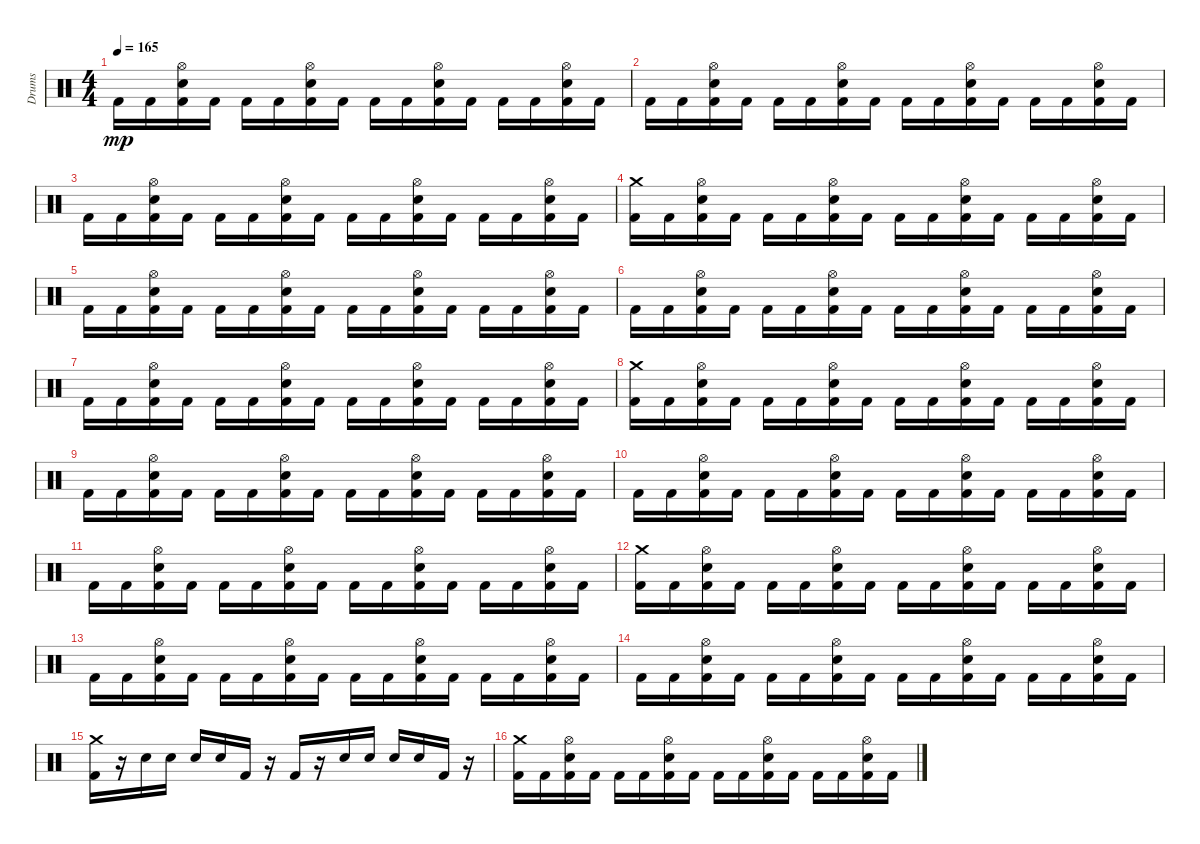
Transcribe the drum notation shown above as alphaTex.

\track ("Drums" "Drums") {instrument percussion}
\staff {score}
\articulation defaults
\ts (4 4)
\tempo 165
\clef neutral
\ks c "Kick (hit) 2".16{dy mp} "Kick (hit) 2".16
("Electric Snare (hit)" "Kick (hit) 2" "Hi-Hat (open)").16 "Kick (hit) 2".16 "Kick (hit) 2".16 "Kick (hit) 2".16 ("Electric Snare (hit)" "Kick (hit) 2" "Hi-Hat (open)").16 "Kick (hit) 2".16 "Kick (hit) 2".16 "Kick (hit) 2".16 ("Kick (hit) 2" "Electric Snare (hit)" "Hi-Hat (open)").16 "Kick (hit) 2".16 "Kick (hit) 2".16 "Kick (hit) 2".16 ("Kick (hit) 2" "Hi-Hat (open)" "Electric Snare (hit)").16 "Kick (hit) 2".16 |
"Kick (hit) 2".16 "Kick (hit) 2".16 ("Kick (hit) 2" "Hi-Hat (open)" "Electric Snare (hit)").16 "Kick (hit) 2".16 "Kick (hit) 2".16 "Kick (hit) 2".16 ("Hi-Hat (open)" "Electric Snare (hit)" "Kick (hit) 2").16 "Kick (hit) 2".16 "Kick (hit) 2".16 "Kick (hit) 2".16 ("Electric Snare (hit)" "Hi-Hat (open)" "Kick (hit) 2").16 "Kick (hit) 2".16 "Kick (hit) 2".16 "Kick (hit) 2".16 ("Hi-Hat (open)" "Electric Snare (hit)" "Kick (hit) 2").16 "Kick (hit) 2".16 |
"Kick (hit) 2".16 "Kick (hit) 2".16 ("Hi-Hat (open)" "Kick (hit) 2" "Electric Snare (hit)").16 "Kick (hit) 2".16 "Kick (hit) 2".16 "Kick (hit) 2".16 ("Electric Snare (hit)" "Kick (hit) 2" "Hi-Hat (open)").16 "Kick (hit) 2".16 "Kick (hit) 2".16 "Kick (hit) 2".16 ("Electric Snare (hit)" "Hi-Hat (open)" "Kick (hit) 2").16 "Kick (hit) 2".16 "Kick (hit) 2".16 "Kick (hit) 2".16 ("Electric Snare (hit)" "Kick (hit) 2" "Hi-Hat (open)").16 "Kick (hit) 2".16 |
("Kick (hit) 2" "Crash medium (hit)").16 "Kick (hit) 2".16 ("Hi-Hat (open)" "Kick (hit) 2" "Electric Snare (hit)").16 "Kick (hit) 2".16 "Kick (hit) 2".16 "Kick (hit) 2".16 ("Electric Snare (hit)" "Hi-Hat (open)" "Kick (hit) 2").16 "Kick (hit) 2".16 "Kick (hit) 2".16 "Kick (hit) 2".16 ("Electric Snare (hit)" "Kick (hit) 2" "Hi-Hat (open)").16 "Kick (hit) 2".16 "Kick (hit) 2".16 "Kick (hit) 2".16 ("Electric Snare (hit)" "Kick (hit) 2" "Hi-Hat (open)").16 "Kick (hit) 2".16 |
"Kick (hit) 2".16 "Kick (hit) 2".16 ("Kick (hit) 2" "Electric Snare (hit)" "Hi-Hat (open)").16 "Kick (hit) 2".16 "Kick (hit) 2".16 "Kick (hit) 2".16 ("Kick (hit) 2" "Electric Snare (hit)" "Hi-Hat (open)").16 "Kick (hit) 2".16 "Kick (hit) 2".16 "Kick (hit) 2".16 ("Hi-Hat (open)" "Electric Snare (hit)" "Kick (hit) 2").16 "Kick (hit) 2".16 "Kick (hit) 2".16 "Kick (hit) 2".16 ("Electric Snare (hit)" "Kick (hit) 2" "Hi-Hat (open)").16 "Kick (hit) 2".16 |
"Kick (hit) 2".16 "Kick (hit) 2".16 ("Electric Snare (hit)" "Kick (hit) 2" "Hi-Hat (open)").16 "Kick (hit) 2".16 "Kick (hit) 2".16 "Kick (hit) 2".16 ("Kick (hit) 2" "Hi-Hat (open)" "Electric Snare (hit)").16 "Kick (hit) 2".16 "Kick (hit) 2".16 "Kick (hit) 2".16 ("Kick (hit) 2" "Electric Snare (hit)" "Hi-Hat (open)").16 "Kick (hit) 2".16 "Kick (hit) 2".16 "Kick (hit) 2".16 ("Kick (hit) 2" "Hi-Hat (open)" "Electric Snare (hit)").16 "Kick (hit) 2".16 |
"Kick (hit) 2".16 "Kick (hit) 2".16 ("Electric Snare (hit)" "Hi-Hat (open)" "Kick (hit) 2").16 "Kick (hit) 2".16 "Kick (hit) 2".16 "Kick (hit) 2".16 ("Electric Snare (hit)" "Hi-Hat (open)" "Kick (hit) 2").16 "Kick (hit) 2".16 "Kick (hit) 2".16 "Kick (hit) 2".16 ("Electric Snare (hit)" "Kick (hit) 2" "Hi-Hat (open)").16 "Kick (hit) 2".16 "Kick (hit) 2".16 "Kick (hit) 2".16 ("Hi-Hat (open)" "Kick (hit) 2" "Electric Snare (hit)").16 "Kick (hit) 2".16 |
("Crash medium (hit)" "Kick (hit) 2").16 "Kick (hit) 2".16 ("Electric Snare (hit)" "Hi-Hat (open)" "Kick (hit) 2").16 "Kick (hit) 2".16 "Kick (hit) 2".16 "Kick (hit) 2".16 ("Electric Snare (hit)" "Hi-Hat (open)" "Kick (hit) 2").16 "Kick (hit) 2".16 "Kick (hit) 2".16 "Kick (hit) 2".16 ("Hi-Hat (open)" "Kick (hit) 2" "Electric Snare (hit)").16 "Kick (hit) 2".16 "Kick (hit) 2".16 "Kick (hit) 2".16 ("Hi-Hat (open)" "Electric Snare (hit)" "Kick (hit) 2").16 "Kick (hit) 2".16 |
"Kick (hit) 2".16 "Kick (hit) 2".16 ("Hi-Hat (open)" "Electric Snare (hit)" "Kick (hit) 2").16 "Kick (hit) 2".16 "Kick (hit) 2".16 "Kick (hit) 2".16 ("Electric Snare (hit)" "Kick (hit) 2" "Hi-Hat (open)").16 "Kick (hit) 2".16 "Kick (hit) 2".16 "Kick (hit) 2".16 ("Electric Snare (hit)" "Kick (hit) 2" "Hi-Hat (open)").16 "Kick (hit) 2".16 "Kick (hit) 2".16 "Kick (hit) 2".16 ("Electric Snare (hit)" "Hi-Hat (open)" "Kick (hit) 2").16 "Kick (hit) 2".16 |
"Kick (hit) 2".16 "Kick (hit) 2".16 ("Kick (hit) 2" "Electric Snare (hit)" "Hi-Hat (open)").16 "Kick (hit) 2".16 "Kick (hit) 2".16 "Kick (hit) 2".16 ("Kick (hit) 2" "Hi-Hat (open)" "Electric Snare (hit)").16 "Kick (hit) 2".16 "Kick (hit) 2".16 "Kick (hit) 2".16 ("Kick (hit) 2" "Electric Snare (hit)" "Hi-Hat (open)").16 "Kick (hit) 2".16 "Kick (hit) 2".16 "Kick (hit) 2".16 ("Electric Snare (hit)" "Kick (hit) 2" "Hi-Hat (open)").16 "Kick (hit) 2".16 |
"Kick (hit) 2".16 "Kick (hit) 2".16 ("Kick (hit) 2" "Hi-Hat (open)" "Electric Snare (hit)").16 "Kick (hit) 2".16 "Kick (hit) 2".16 "Kick (hit) 2".16 ("Kick (hit) 2" "Hi-Hat (open)" "Electric Snare (hit)").16 "Kick (hit) 2".16 "Kick (hit) 2".16 "Kick (hit) 2".16 ("Kick (hit) 2" "Electric Snare (hit)" "Hi-Hat (open)").16 "Kick (hit) 2".16 "Kick (hit) 2".16 "Kick (hit) 2".16 ("Electric Snare (hit)" "Kick (hit) 2" "Hi-Hat (open)").16 "Kick (hit) 2".16 |
("Kick (hit) 2" "Crash medium (hit)").16 "Kick (hit) 2".16 ("Electric Snare (hit)" "Hi-Hat (open)" "Kick (hit) 2").16 "Kick (hit) 2".16 "Kick (hit) 2".16 "Kick (hit) 2".16 ("Hi-Hat (open)" "Electric Snare (hit)" "Kick (hit) 2").16 "Kick (hit) 2".16 "Kick (hit) 2".16 "Kick (hit) 2".16 ("Electric Snare (hit)" "Kick (hit) 2" "Hi-Hat (open)").16 "Kick (hit) 2".16 "Kick (hit) 2".16 "Kick (hit) 2".16 ("Hi-Hat (open)" "Kick (hit) 2" "Electric Snare (hit)").16 "Kick (hit) 2".16 |
"Kick (hit) 2".16 "Kick (hit) 2".16 ("Electric Snare (hit)" "Kick (hit) 2" "Hi-Hat (open)").16 "Kick (hit) 2".16 "Kick (hit) 2".16 "Kick (hit) 2".16 ("Electric Snare (hit)" "Hi-Hat (open)" "Kick (hit) 2").16 "Kick (hit) 2".16 "Kick (hit) 2".16 "Kick (hit) 2".16 ("Kick (hit) 2" "Hi-Hat (open)" "Electric Snare (hit)").16 "Kick (hit) 2".16 "Kick (hit) 2".16 "Kick (hit) 2".16 ("Kick (hit) 2" "Hi-Hat (open)" "Electric Snare (hit)").16 "Kick (hit) 2".16 |
"Kick (hit) 2".16 "Kick (hit) 2".16 ("Hi-Hat (open)" "Electric Snare (hit)" "Kick (hit) 2").16 "Kick (hit) 2".16 "Kick (hit) 2".16 "Kick (hit) 2".16 ("Electric Snare (hit)" "Kick (hit) 2" "Hi-Hat (open)").16 "Kick (hit) 2".16 "Kick (hit) 2".16 "Kick (hit) 2".16 ("Kick (hit) 2" "Hi-Hat (open)" "Electric Snare (hit)").16 "Kick (hit) 2".16 "Kick (hit) 2".16 "Kick (hit) 2".16 ("Kick (hit) 2" "Electric Snare (hit)" "Hi-Hat (open)").16 "Kick (hit) 2".16 |
("Crash medium (hit)" "Kick (hit) 2").16 r.16 "Electric Snare (hit)".16 "Electric Snare (hit)".16 "Electric Snare (hit)".16 "Electric Snare (hit)".16 "Kick (hit) 2".16 r.16 "Kick (hit) 2".16 r.16 "Electric Snare (hit)".16 "Electric Snare (hit)".16 "Electric Snare (hit)".16 "Electric Snare (hit)".16 "Kick (hit) 2".16 r.16 |
("Kick (hit) 2" "Crash medium (hit)").16 "Kick (hit) 2".16 ("Electric Snare (hit)" "Hi-Hat (open)" "Kick (hit) 2").16 "Kick (hit) 2".16 "Kick (hit) 2".16 "Kick (hit) 2".16 ("Kick (hit) 2" "Electric Snare (hit)" "Hi-Hat (open)").16 "Kick (hit) 2".16 "Kick (hit) 2".16 "Kick (hit) 2".16 ("Electric Snare (hit)" "Kick (hit) 2" "Hi-Hat (open)").16 "Kick (hit) 2".16 "Kick (hit) 2".16 "Kick (hit) 2".16 ("Hi-Hat (open)" "Electric Snare (hit)" "Kick (hit) 2").16 "Kick (hit) 2".16
